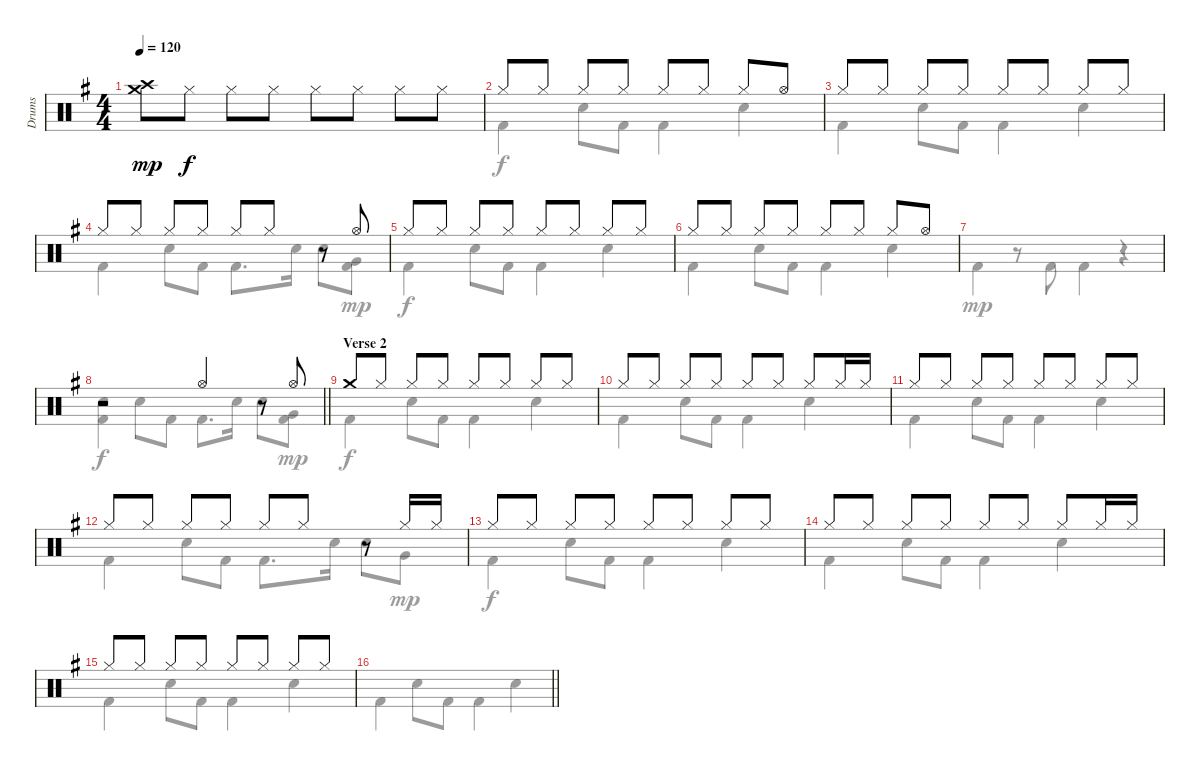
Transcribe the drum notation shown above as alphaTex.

\track ("Drums" "Drums") {instrument percussion}
\staff {score}
\articulation defaults
\voice
\ts (4 4)
\tempo 120
\clef neutral
\ks g
("Crash medium (hit)" "Crash high (hit)").8{dy mp} "Hi-Hat (closed)".8{dy f} "Hi-Hat (closed)".8 "Hi-Hat (closed)".8 "Hi-Hat (closed)".8 "Hi-Hat (closed)".8 "Hi-Hat (closed)".8 "Hi-Hat (closed)".8 |
"Hi-Hat (closed)".8 "Hi-Hat (closed)".8 "Hi-Hat (closed)".8 "Hi-Hat (closed)".8 "Hi-Hat (closed)".8 "Hi-Hat (closed)".8 "Hi-Hat (closed)".8 "Hi-Hat (open)".8 |
"Hi-Hat (closed)".8 "Hi-Hat (closed)".8 "Hi-Hat (closed)".8 "Hi-Hat (closed)".8 "Hi-Hat (closed)".8 "Hi-Hat (closed)".8 "Hi-Hat (closed)".8 "Hi-Hat (closed)".8 |
"Hi-Hat (closed)".8 "Hi-Hat (closed)".8 "Hi-Hat (closed)".8 "Hi-Hat (closed)".8 "Hi-Hat (closed)".8 "Hi-Hat (closed)".8 r.8 "Hi-Hat (open)".8 |
"Hi-Hat (closed)".8 "Hi-Hat (closed)".8 "Hi-Hat (closed)".8 "Hi-Hat (closed)".8 "Hi-Hat (closed)".8 "Hi-Hat (closed)".8 "Hi-Hat (closed)".8 "Hi-Hat (closed)".8 |
"Hi-Hat (closed)".8 "Hi-Hat (closed)".8 "Hi-Hat (closed)".8 "Hi-Hat (closed)".8 "Hi-Hat (closed)".8 "Hi-Hat (closed)".8 "Hi-Hat (closed)".8 "Hi-Hat (open)".8 |
|
\barLineRight lightlight
r.2 "Hi-Hat (open)".4 r.8 "Hi-Hat (open)".8 |
\section ("" "Verse 2")
"Crash medium (hit)".8 "Hi-Hat (closed)".8 "Hi-Hat (closed)".8 "Hi-Hat (closed)".8 "Hi-Hat (closed)".8 "Hi-Hat (closed)".8 "Hi-Hat (closed)".8 "Hi-Hat (closed)".8 |
"Hi-Hat (closed)".8 "Hi-Hat (closed)".8 "Hi-Hat (closed)".8 "Hi-Hat (closed)".8 "Hi-Hat (closed)".8 "Hi-Hat (closed)".8 "Hi-Hat (closed)".8 "Hi-Hat (closed)".16 "Hi-Hat (closed)".16 |
"Hi-Hat (closed)".8 "Hi-Hat (closed)".8 "Hi-Hat (closed)".8 "Hi-Hat (closed)".8 "Hi-Hat (closed)".8 "Hi-Hat (closed)".8 "Hi-Hat (closed)".8 "Hi-Hat (closed)".8 |
"Hi-Hat (closed)".8 "Hi-Hat (closed)".8 "Hi-Hat (closed)".8 "Hi-Hat (closed)".8 "Hi-Hat (closed)".8 "Hi-Hat (closed)".8 r.8 "Hi-Hat (closed)".16 "Hi-Hat (closed)".16 |
"Hi-Hat (closed)".8 "Hi-Hat (closed)".8 "Hi-Hat (closed)".8 "Hi-Hat (closed)".8 "Hi-Hat (closed)".8 "Hi-Hat (closed)".8 "Hi-Hat (closed)".8 "Hi-Hat (closed)".8 |
"Hi-Hat (closed)".8 "Hi-Hat (closed)".8 "Hi-Hat (closed)".8 "Hi-Hat (closed)".8 "Hi-Hat (closed)".8 "Hi-Hat (closed)".8 "Hi-Hat (closed)".8 "Hi-Hat (closed)".16 "Hi-Hat (closed)".16 |
"Hi-Hat (closed)".8 "Hi-Hat (closed)".8 "Hi-Hat (closed)".8 "Hi-Hat (closed)".8 "Hi-Hat (closed)".8 "Hi-Hat (closed)".8 "Hi-Hat (closed)".8 "Hi-Hat (closed)".8 |
\barLineRight lightlight
\voice
\clef neutral
\ottava regular
\simile none
\ks g "Kick (hit) 2".4{dy f} "Electric Snare (hit)".8 "Kick (hit) 2".8 "Kick (hit) 2".4 "Electric Snare (hit)".4
|
"Kick (hit) 2".4 "Electric Snare (hit)".8 "Kick (hit) 2".8 "Kick (hit) 2".4 "Electric Snare (hit)".4 |
"Kick (hit) 2".4 "Electric Snare (hit)".8 "Kick (hit) 2".8 "Kick (hit) 2".4 "Electric Snare (hit)".4 |
"Kick (hit) 2".4 "Electric Snare (hit)".8 "Kick (hit) 2".8 "Kick (hit) 2".8{d} "Electric Snare (hit)".16 "Electric Snare (hit)".8 ("Very Low Tom (hit)" "Kick (hit) 2").8{dy mp} |
"Kick (hit) 2".4{dy f} "Electric Snare (hit)".8 "Kick (hit) 2".8 "Kick (hit) 2".4 "Electric Snare (hit)".4 |
"Kick (hit) 2".4 "Electric Snare (hit)".8 "Kick (hit) 2".8 "Kick (hit) 2".4 "Electric Snare (hit)".4 |
"Kick (hit) 2".4{dy mp} r.8 "Kick (hit) 2".8 "Kick (hit) 2".4 r.4 |
\barLineRight lightlight
("Electric Snare (hit)" "Kick (hit) 2").4{dy f} "Electric Snare (hit)".8 "Kick (hit) 2".8 "Kick (hit) 2".8{d} "Electric Snare (hit)".16 "Electric Snare (hit)".8 ("Very Low Tom (hit)" "Kick (hit) 2").8{dy mp} |
"Kick (hit) 2".4{dy f} "Electric Snare (hit)".8 "Kick (hit) 2".8 "Kick (hit) 2".4 "Electric Snare (hit)".4 |
"Kick (hit) 2".4 "Electric Snare (hit)".8 "Kick (hit) 2".8 "Kick (hit) 2".4 "Electric Snare (hit)".4 |
"Kick (hit) 2".4 "Electric Snare (hit)".8 "Kick (hit) 2".8 "Kick (hit) 2".4 "Electric Snare (hit)".4 |
"Kick (hit) 2".4 "Electric Snare (hit)".8 "Kick (hit) 2".8 "Kick (hit) 2".8{d} "Electric Snare (hit)".16 "Electric Snare (hit)".8 "Very Low Tom (hit)".8{dy mp} |
"Kick (hit) 2".4{dy f} "Electric Snare (hit)".8 "Kick (hit) 2".8 "Kick (hit) 2".4 "Electric Snare (hit)".4 |
"Kick (hit) 2".4 "Electric Snare (hit)".8 "Kick (hit) 2".8 "Kick (hit) 2".4 "Electric Snare (hit)".4 |
"Kick (hit) 2".4 "Electric Snare (hit)".8 "Kick (hit) 2".8 "Kick (hit) 2".4 "Electric Snare (hit)".4 |
\barLineRight lightlight
